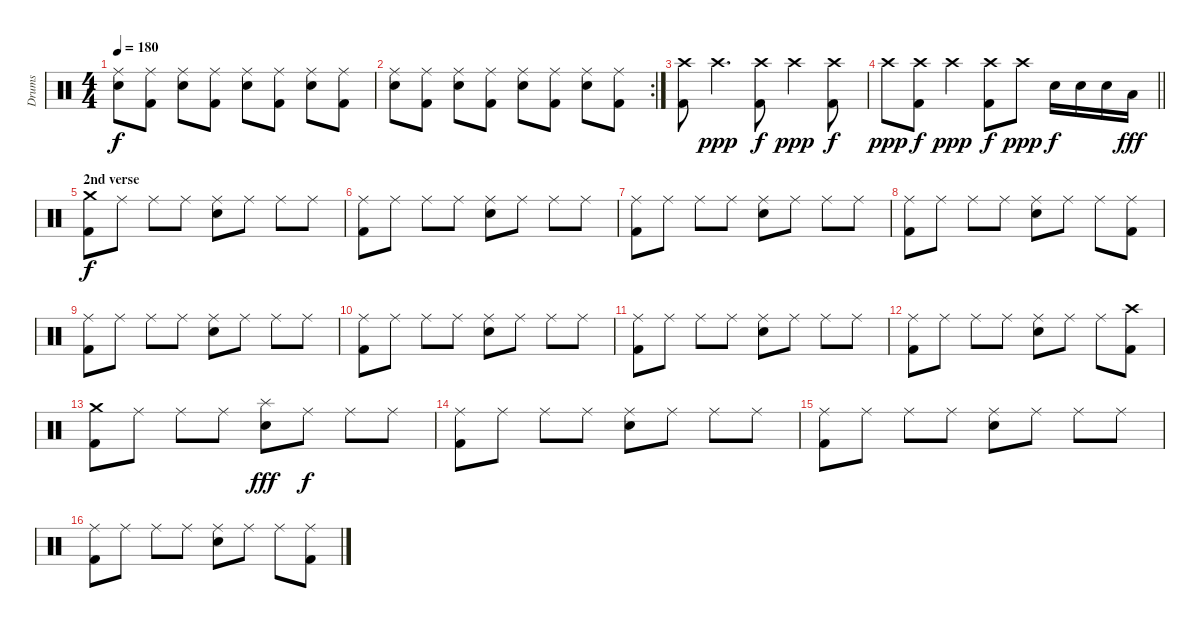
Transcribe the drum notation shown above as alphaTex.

\track ("Drums" "Drums") {instrument percussion}
\staff {score}
\articulation defaults
\ts (4 4)
\tempo 180
\clef neutral
\ks c
("Ride (middle)" "Snare (hit) 2").8{dy f} ("Kick (hit) 2" "Ride (middle)").8 ("Ride (middle)" "Snare (hit) 2").8 ("Kick (hit) 2" "Ride (middle)").8 ("Ride (middle)" "Snare (hit) 2").8 ("Kick (hit) 2" "Ride (middle)").8 ("Ride (middle)" "Snare (hit) 2").8 ("Kick (hit) 2" "Ride (middle)").8 |
\rc 2
("Ride (middle)" "Snare (hit) 2").8 ("Kick (hit) 2" "Ride (middle)").8 ("Ride (middle)" "Snare (hit) 2").8 ("Kick (hit) 2" "Ride (middle)").8 ("Ride (middle)" "Snare (hit) 2").8 ("Kick (hit) 2" "Ride (middle)").8 ("Ride (middle)" "Snare (hit) 2").8 ("Kick (hit) 2" "Ride (middle)").8 |
("Kick (hit) 2" "Crash high (hit)").8 "Crash high (hit)".4{d dy ppp} ("Kick (hit) 2" "Crash high (hit)").8{dy f} "Crash high (hit)".4{dy ppp} ("Kick (hit) 2" "Crash high (hit)").8{dy f} |
\barLineRight lightlight "Crash high (hit)".8{dy ppp}
("Kick (hit) 2" "Crash high (hit)").8{dy f} "Crash high (hit)".4{dy ppp} ("Kick (hit) 2" "Crash high (hit)").8{dy f} "Crash high (hit)".8{dy ppp} "Snare (hit) 2".16{dy f} "Snare (hit) 2".16 "Snare (hit) 2".16 "Low Floor Tom (hit)".16{dy fff} |
\section ("" "2nd verse")
("Kick (hit) 2" "Crash medium (hit)").8{dy f} "Ride (middle)".8 "Ride (middle)".8 "Ride (middle)".8 ("Ride (middle)" "Snare (hit) 2").8 "Ride (middle)".8 "Ride (middle)".8 "Ride (middle)".8 |
("Kick (hit) 2" "Ride (middle)").8 "Ride (middle)".8 "Ride (middle)".8 "Ride (middle)".8 ("Ride (middle)" "Snare (hit) 2").8 "Ride (middle)".8 "Ride (middle)".8 "Ride (middle)".8 |
("Kick (hit) 2" "Ride (middle)").8 "Ride (middle)".8 "Ride (middle)".8 "Ride (middle)".8 ("Ride (middle)" "Snare (hit) 2").8 "Ride (middle)".8 "Ride (middle)".8 "Ride (middle)".8 |
("Kick (hit) 2" "Ride (middle)").8 "Ride (middle)".8 "Ride (middle)".8 "Ride (middle)".8 ("Ride (middle)" "Snare (hit) 2").8 "Ride (middle)".8 "Ride (middle)".8 ("Kick (hit) 2" "Ride (middle)").8 |
("Kick (hit) 2" "Ride (middle)").8 "Ride (middle)".8 "Ride (middle)".8 "Ride (middle)".8 ("Ride (middle)" "Snare (hit) 2").8 "Ride (middle)".8 "Ride (middle)".8 "Ride (middle)".8 |
("Kick (hit) 2" "Ride (middle)").8 "Ride (middle)".8 "Ride (middle)".8 "Ride (middle)".8 ("Ride (middle)" "Snare (hit) 2").8 "Ride (middle)".8 "Ride (middle)".8 "Ride (middle)".8 |
("Kick (hit) 2" "Ride (middle)").8 "Ride (middle)".8 "Ride (middle)".8 "Ride (middle)".8 ("Ride (middle)" "Snare (hit) 2").8 "Ride (middle)".8 "Ride (middle)".8 "Ride (middle)".8 |
("Kick (hit) 2" "Ride (middle)").8 "Ride (middle)".8 "Ride (middle)".8 "Ride (middle)".8 ("Ride (middle)" "Snare (hit) 2").8 "Ride (middle)".8 "Ride (middle)".8 ("Kick (hit) 2" "Crash high (hit)").8 |
("Kick (hit) 2" "Crash medium (hit)").8 "Ride (middle)".8 "Ride (middle)".8 "Ride (middle)".8 ("Splash (hit)" "Snare (hit) 2").8{dy fff} "Ride (middle)".8{dy f} "Ride (middle)".8 "Ride (middle)".8 |
("Kick (hit) 2" "Ride (middle)").8 "Ride (middle)".8 "Ride (middle)".8 "Ride (middle)".8 ("Ride (middle)" "Snare (hit) 2").8 "Ride (middle)".8 "Ride (middle)".8 "Ride (middle)".8 |
("Kick (hit) 2" "Ride (middle)").8 "Ride (middle)".8 "Ride (middle)".8 "Ride (middle)".8 ("Ride (middle)" "Snare (hit) 2").8 "Ride (middle)".8 "Ride (middle)".8 "Ride (middle)".8 |
("Kick (hit) 2" "Ride (middle)").8 "Ride (middle)".8 "Ride (middle)".8 "Ride (middle)".8 ("Ride (middle)" "Snare (hit) 2").8 "Ride (middle)".8 "Ride (middle)".8 ("Kick (hit) 2" "Ride (middle)").8
